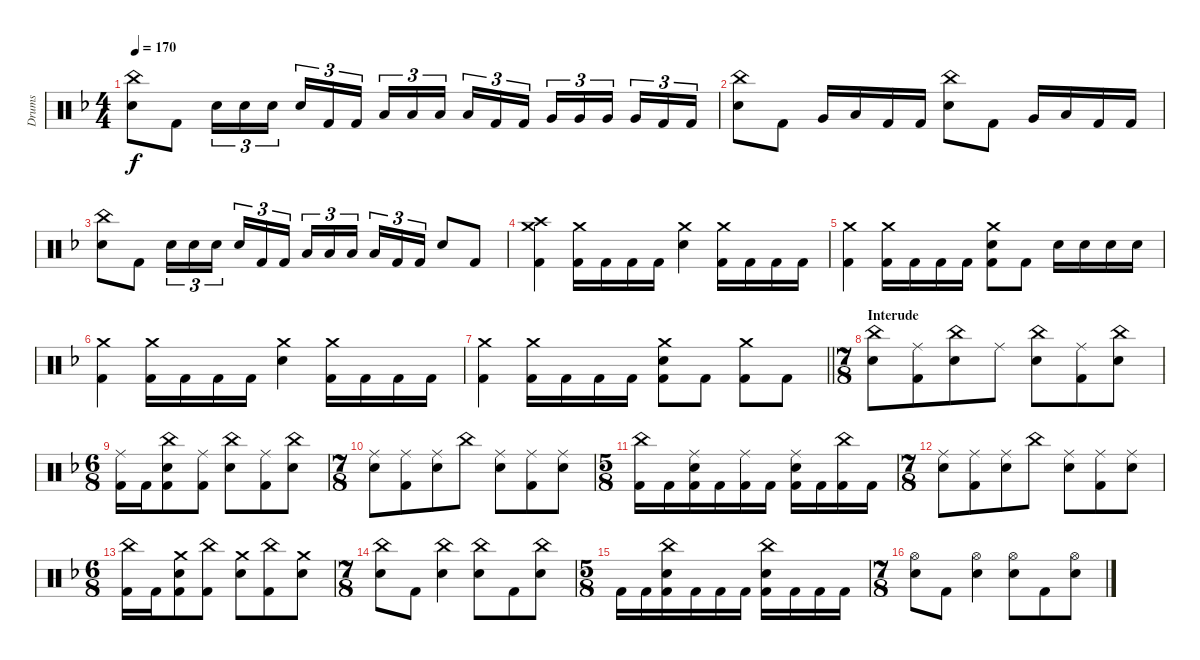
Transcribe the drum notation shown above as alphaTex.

\track ("Drums" "Drums") {instrument percussion}
\staff {score}
\articulation defaults
\ts (4 4)
\tempo 170
\clef neutral
\ks dminor
("China (hit)" "Electric Snare (hit)").8{dy f} "Kick (hit) 2".8 "Electric Snare (hit)".16{tu (3 2)} "Electric Snare (hit)".16{tu (3 2)} "Electric Snare (hit)".16{tu (3 2) beam splitsecondary} "Electric Snare (hit)".16{tu (3 2)} "Kick (hit) 2".16{tu (3 2)} "Kick (hit) 2".16{tu (3 2)} "Low Tom (hit)".16{tu (3 2)} "Low Tom (hit)".16{tu (3 2)} "Low Tom (hit)".16{tu (3 2) beam splitsecondary} "Low Tom (hit)".16{tu (3 2)} "Kick (hit) 2".16{tu (3 2)} "Kick (hit) 2".16{tu (3 2)} "Very Low Tom (hit)".16{tu (3 2)} "Very Low Tom (hit)".16{tu (3 2)} "Very Low Tom (hit)".16{tu (3 2) beam splitsecondary} "Very Low Tom (hit)".16{tu (3 2)} "Kick (hit) 2".16{tu (3 2)} "Kick (hit) 2".16{tu (3 2)} |
("China (hit)" "Electric Snare (hit)").8 "Kick (hit) 2".8 "Very Low Tom (hit)".16 "Low Tom (hit)".16 "Kick (hit) 2".16 "Kick (hit) 2".16 ("China (hit)" "Electric Snare (hit)").8 "Kick (hit) 2".8 "Very Low Tom (hit)".16 "Low Tom (hit)".16 "Kick (hit) 2".16 "Kick (hit) 2".16 |
("China (hit)" "Electric Snare (hit)").8 "Kick (hit) 2".8 "Electric Snare (hit)".16{tu (3 2)} "Electric Snare (hit)".16{tu (3 2)} "Electric Snare (hit)".16{tu (3 2) beam splitsecondary} "Electric Snare (hit)".16{tu (3 2)} "Kick (hit) 2".16{tu (3 2)} "Kick (hit) 2".16{tu (3 2)} "Low Tom (hit)".16{tu (3 2)} "Low Tom (hit)".16{tu (3 2)} "Low Tom (hit)".16{tu (3 2) beam splitsecondary} "Low Tom (hit)".16{tu (3 2)} "Kick (hit) 2".16{tu (3 2)} "Kick (hit) 2".16{tu (3 2)} "Electric Snare (hit)".8 "Kick (hit) 2".8 |
("Crash medium (hit)" "Crash high (hit)" "Kick (hit) 2").4 ("Crash medium (hit)" "Kick (hit) 2").16 "Kick (hit) 2".16 "Kick (hit) 2".16 "Kick (hit) 2".16 ("Crash medium (hit)" "Electric Snare (hit)").4 ("Crash medium (hit)" "Kick (hit) 2").16 "Kick (hit) 2".16 "Kick (hit) 2".16 "Kick (hit) 2".16 |
("Crash medium (hit)" "Kick (hit) 2").4 ("Crash medium (hit)" "Kick (hit) 2").16 "Kick (hit) 2".16 "Kick (hit) 2".16 "Kick (hit) 2".16 ("Crash medium (hit)" "Electric Snare (hit)" "Kick (hit) 2").8 "Kick (hit) 2".8 "Electric Snare (hit)".16 "Electric Snare (hit)".16 "Electric Snare (hit)".16 "Electric Snare (hit)".16 |
("Crash medium (hit)" "Kick (hit) 2").4 ("Crash medium (hit)" "Kick (hit) 2").16 "Kick (hit) 2".16 "Kick (hit) 2".16 "Kick (hit) 2".16 ("Crash medium (hit)" "Electric Snare (hit)").4 ("Crash medium (hit)" "Kick (hit) 2").16 "Kick (hit) 2".16 "Kick (hit) 2".16 "Kick (hit) 2".16 |
\barLineRight lightlight
("Crash medium (hit)" "Kick (hit) 2").4 ("Crash medium (hit)" "Kick (hit) 2").16 "Kick (hit) 2".16 "Kick (hit) 2".16 "Kick (hit) 2".16 ("Crash medium (hit)" "Electric Snare (hit)" "Kick (hit) 2").8 "Kick (hit) 2".8 ("Crash medium (hit)" "Kick (hit) 2").8 "Kick (hit) 2".8 |
\ts (7 8)
\section ("" "Interude")
("China (hit)" "Electric Snare (hit)").8 ("Ride (middle)" "Kick (hit) 2").8 ("China (hit)" "Electric Snare (hit)").8 "Ride (middle)".8 ("China (hit)" "Electric Snare (hit)").8 ("Ride (middle)" "Kick (hit) 2").8 ("China (hit)" "Electric Snare (hit)").8 |
\ts (6 8)
("Ride (middle)" "Kick (hit) 2").16 "Kick (hit) 2".16 ("China (hit)" "Electric Snare (hit)" "Kick (hit) 2").8 ("Ride (middle)" "Kick (hit) 2").8 ("China (hit)" "Electric Snare (hit)").8 ("Ride (middle)" "Kick (hit) 2").8 ("China (hit)" "Electric Snare (hit)").8 |
\ts (7 8)
("Ride (middle)" "Electric Snare (hit)").8 ("Ride (middle)" "Kick (hit) 2").8 ("Ride (middle)" "Electric Snare (hit)").8 "China (hit)".8 ("Ride (middle)" "Electric Snare (hit)").8 ("Ride (middle)" "Kick (hit) 2").8 ("Ride (middle)" "Electric Snare (hit)").8 |
\ts (5 8)
("China (hit)" "Kick (hit) 2").16 "Kick (hit) 2".16 ("Ride (middle)" "Electric Snare (hit)" "Kick (hit) 2").16 "Kick (hit) 2".16 ("Ride (middle)" "Kick (hit) 2").16 "Kick (hit) 2".16 ("Ride (middle)" "Electric Snare (hit)" "Kick (hit) 2").16 "Kick (hit) 2".16 ("China (hit)" "Kick (hit) 2").16 "Kick (hit) 2".16 |
\ts (7 8)
("Ride (middle)" "Electric Snare (hit)").8 ("Ride (middle)" "Kick (hit) 2").8 ("Ride (middle)" "Electric Snare (hit)").8 "China (hit)".8 ("Ride (middle)" "Electric Snare (hit)").8 ("Ride (middle)" "Kick (hit) 2").8 ("Ride (middle)" "Electric Snare (hit)").8 |
\ts (6 8)
("China (hit)" "Kick (hit) 2").16 "Kick (hit) 2".16 ("Crash medium (hit)" "Electric Snare (hit)" "Kick (hit) 2").8 ("China (hit)" "Kick (hit) 2").8 ("Crash medium (hit)" "Electric Snare (hit)").8 ("China (hit)" "Kick (hit) 2").8 ("Crash medium (hit)" "Electric Snare (hit)").8 |
\ts (7 8)
("China (hit)" "Electric Snare (hit)").8 "Kick (hit) 2".8 ("China (hit)" "Electric Snare (hit)").4 ("China (hit)" "Electric Snare (hit)").8 "Kick (hit) 2".8 ("China (hit)" "Electric Snare (hit)").8 |
\ts (5 8)
"Kick (hit) 2".16 "Kick (hit) 2".16 ("China (hit)" "Electric Snare (hit)" "Kick (hit) 2").16 "Kick (hit) 2".16 "Kick (hit) 2".16 "Kick (hit) 2".16 ("China (hit)" "Electric Snare (hit)" "Kick (hit) 2").16 "Kick (hit) 2".16 "Kick (hit) 2".16 "Kick (hit) 2".16 |
\ts (7 8)
("Hi-Hat (open)" "Electric Snare (hit)").8 "Kick (hit) 2".8 ("Hi-Hat (open)" "Electric Snare (hit)").4 ("Hi-Hat (open)" "Electric Snare (hit)").8 "Kick (hit) 2".8 ("Hi-Hat (open)" "Electric Snare (hit)").8
